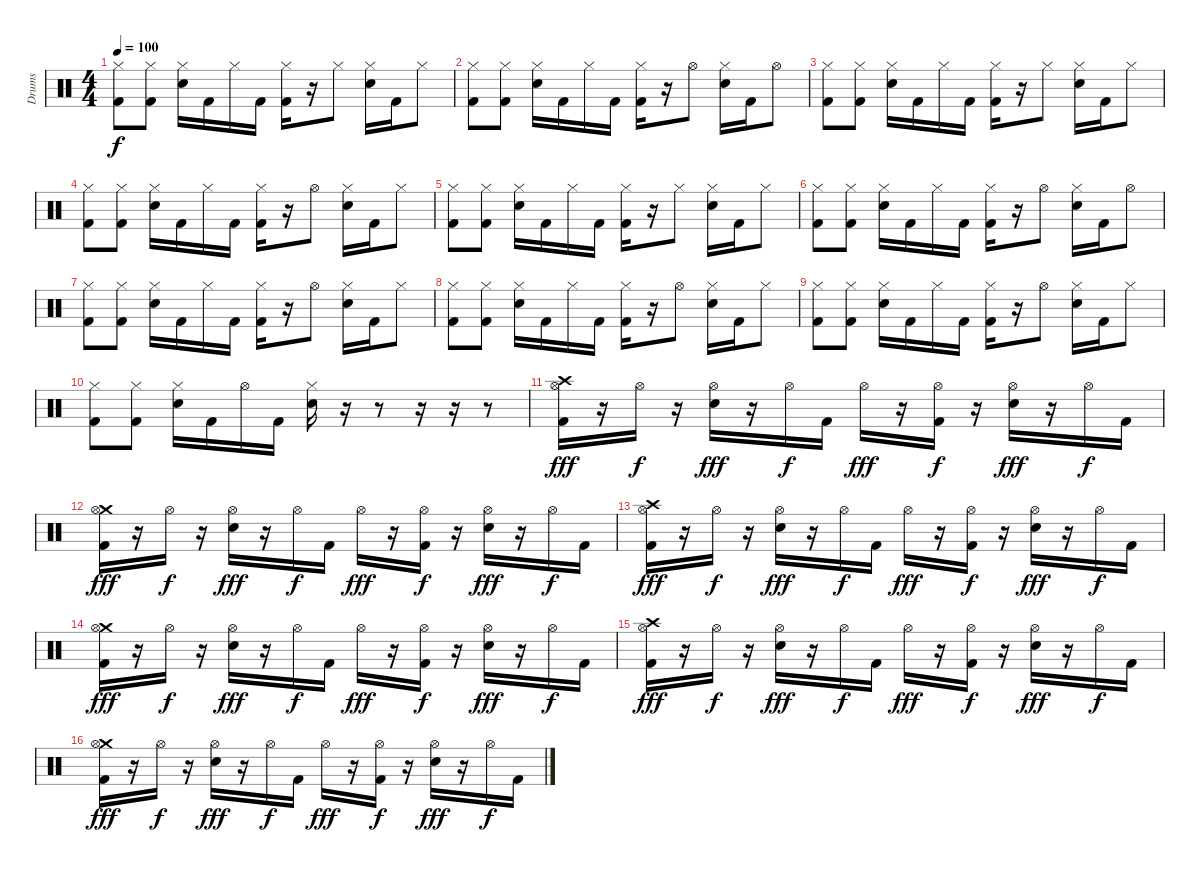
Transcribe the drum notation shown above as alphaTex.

\track ("Drums" "Drums") {instrument percussion}
\staff {score}
\articulation defaults
\ts (4 4)
\tempo 100
\clef neutral
\ks c
("Hi-Hat (closed)" "Kick (hit) 2").8{dy f} ("Hi-Hat (closed)" "Kick (hit) 2").8 ("Hi-Hat (closed)" "Electric Snare (hit)").16 "Kick (hit) 2".16 "Hi-Hat (closed)".16 "Kick (hit) 2".16 ("Hi-Hat (closed)" "Kick (hit) 2").16 r.16 "Hi-Hat (closed)".8 ("Hi-Hat (closed)" "Electric Snare (hit)").16 "Kick (hit) 2".16 "Hi-Hat (closed)".8 |
("Hi-Hat (closed)" "Kick (hit) 2").8 ("Hi-Hat (closed)" "Kick (hit) 2").8 ("Hi-Hat (closed)" "Electric Snare (hit)").16 "Kick (hit) 2".16 "Hi-Hat (closed)".16 "Kick (hit) 2".16 ("Hi-Hat (closed)" "Kick (hit) 2").16 r.16 "Hi-Hat (open)".8 ("Hi-Hat (closed)" "Electric Snare (hit)").16 "Kick (hit) 2".16 "Hi-Hat (open)".8 |
("Hi-Hat (closed)" "Kick (hit) 2").8 ("Hi-Hat (closed)" "Kick (hit) 2").8 ("Hi-Hat (closed)" "Electric Snare (hit)").16 "Kick (hit) 2".16 "Hi-Hat (closed)".16 "Kick (hit) 2".16 ("Hi-Hat (closed)" "Kick (hit) 2").16 r.16 "Hi-Hat (closed)".8 ("Hi-Hat (closed)" "Electric Snare (hit)").16 "Kick (hit) 2".16 "Hi-Hat (closed)".8 |
("Hi-Hat (closed)" "Kick (hit) 2").8 ("Hi-Hat (closed)" "Kick (hit) 2").8 ("Hi-Hat (closed)" "Electric Snare (hit)").16 "Kick (hit) 2".16 "Hi-Hat (closed)".16 "Kick (hit) 2".16 ("Hi-Hat (closed)" "Kick (hit) 2").16 r.16 "Hi-Hat (open)".8 ("Hi-Hat (closed)" "Electric Snare (hit)").16 "Kick (hit) 2".16 "Hi-Hat (closed)".8 |
("Hi-Hat (closed)" "Kick (hit) 2").8 ("Hi-Hat (closed)" "Kick (hit) 2").8 ("Hi-Hat (closed)" "Electric Snare (hit)").16 "Kick (hit) 2".16 "Hi-Hat (closed)".16 "Kick (hit) 2".16 ("Hi-Hat (closed)" "Kick (hit) 2").16 r.16 "Hi-Hat (closed)".8 ("Hi-Hat (closed)" "Electric Snare (hit)").16 "Kick (hit) 2".16 "Hi-Hat (closed)".8 |
("Hi-Hat (closed)" "Kick (hit) 2").8 ("Hi-Hat (closed)" "Kick (hit) 2").8 ("Hi-Hat (closed)" "Electric Snare (hit)").16 "Kick (hit) 2".16 "Hi-Hat (closed)".16 "Kick (hit) 2".16 ("Hi-Hat (closed)" "Kick (hit) 2").16 r.16 "Hi-Hat (open)".8 ("Hi-Hat (closed)" "Electric Snare (hit)").16 "Kick (hit) 2".16 "Hi-Hat (open)".8 |
("Hi-Hat (closed)" "Kick (hit) 2").8 ("Hi-Hat (closed)" "Kick (hit) 2").8 ("Hi-Hat (closed)" "Electric Snare (hit)").16 "Kick (hit) 2".16 "Hi-Hat (closed)".16 "Kick (hit) 2".16 ("Hi-Hat (closed)" "Kick (hit) 2").16 r.16 "Hi-Hat (open)".8 ("Hi-Hat (closed)" "Electric Snare (hit)").16 "Kick (hit) 2".16 "Hi-Hat (closed)".8 |
("Hi-Hat (closed)" "Kick (hit) 2").8 ("Hi-Hat (closed)" "Kick (hit) 2").8 ("Hi-Hat (closed)" "Electric Snare (hit)").16 "Kick (hit) 2".16 "Hi-Hat (closed)".16 "Kick (hit) 2".16 ("Hi-Hat (closed)" "Kick (hit) 2").16 r.16 "Hi-Hat (open)".8 ("Hi-Hat (closed)" "Electric Snare (hit)").16 "Kick (hit) 2".16 "Hi-Hat (closed)".8 |
("Hi-Hat (closed)" "Kick (hit) 2").8 ("Hi-Hat (closed)" "Kick (hit) 2").8 ("Hi-Hat (closed)" "Electric Snare (hit)").16 "Kick (hit) 2".16 "Hi-Hat (closed)".16 "Kick (hit) 2".16 ("Hi-Hat (closed)" "Kick (hit) 2").16 r.16 "Hi-Hat (open)".8 ("Hi-Hat (closed)" "Electric Snare (hit)").16 "Kick (hit) 2".16 "Hi-Hat (closed)".8 |
("Hi-Hat (closed)" "Kick (hit) 2").8 ("Hi-Hat (closed)" "Kick (hit) 2").8 ("Hi-Hat (closed)" "Electric Snare (hit)").16 "Kick (hit) 2".16 "Hi-Hat (open)".16 "Kick (hit) 2".16 ("Hi-Hat (closed)" "Electric Snare (hit)").16 r.16 r.8 r.16 r.16 r.8 |
("Crash high (hit)" "Hi-Hat (open)" "Kick (hit) 2").16{dy fff} r.16 "Hi-Hat (open)".16{dy f} r.16 ("Hi-Hat (open)" "Electric Snare (hit)").16{dy fff} r.16 "Hi-Hat (open)".16{dy f} "Kick (hit) 2".16 "Hi-Hat (open)".16{dy fff} r.16 ("Hi-Hat (open)" "Kick (hit) 2").16{dy f} r.16 ("Hi-Hat (open)" "Electric Snare (hit)").16{dy fff} r.16 "Hi-Hat (open)".16{dy f} "Kick (hit) 2".16 |
("Crash medium (hit)" "Hi-Hat (open)" "Kick (hit) 2").16{dy fff} r.16 "Hi-Hat (open)".16{dy f} r.16 ("Hi-Hat (open)" "Electric Snare (hit)").16{dy fff} r.16 "Hi-Hat (open)".16{dy f} "Kick (hit) 2".16 "Hi-Hat (open)".16{dy fff} r.16 ("Hi-Hat (open)" "Kick (hit) 2").16{dy f} r.16 ("Hi-Hat (open)" "Electric Snare (hit)").16{dy fff} r.16 "Hi-Hat (open)".16{dy f} "Kick (hit) 2".16 |
("Crash high (hit)" "Hi-Hat (open)" "Kick (hit) 2").16{dy fff} r.16 "Hi-Hat (open)".16{dy f} r.16 ("Hi-Hat (open)" "Electric Snare (hit)").16{dy fff} r.16 "Hi-Hat (open)".16{dy f} "Kick (hit) 2".16 "Hi-Hat (open)".16{dy fff} r.16 ("Hi-Hat (open)" "Kick (hit) 2").16{dy f} r.16 ("Hi-Hat (open)" "Electric Snare (hit)").16{dy fff} r.16 "Hi-Hat (open)".16{dy f} "Kick (hit) 2".16 |
("Crash medium (hit)" "Hi-Hat (open)" "Kick (hit) 2").16{dy fff} r.16 "Hi-Hat (open)".16{dy f} r.16 ("Hi-Hat (open)" "Electric Snare (hit)").16{dy fff} r.16 "Hi-Hat (open)".16{dy f} "Kick (hit) 2".16 "Hi-Hat (open)".16{dy fff} r.16 ("Hi-Hat (open)" "Kick (hit) 2").16{dy f} r.16 ("Hi-Hat (open)" "Electric Snare (hit)").16{dy fff} r.16 "Hi-Hat (open)".16{dy f} "Kick (hit) 2".16 |
("Crash high (hit)" "Hi-Hat (open)" "Kick (hit) 2").16{dy fff} r.16 "Hi-Hat (open)".16{dy f} r.16 ("Hi-Hat (open)" "Electric Snare (hit)").16{dy fff} r.16 "Hi-Hat (open)".16{dy f} "Kick (hit) 2".16 "Hi-Hat (open)".16{dy fff} r.16 ("Hi-Hat (open)" "Kick (hit) 2").16{dy f} r.16 ("Hi-Hat (open)" "Electric Snare (hit)").16{dy fff} r.16 "Hi-Hat (open)".16{dy f} "Kick (hit) 2".16 |
("Crash medium (hit)" "Hi-Hat (open)" "Kick (hit) 2").16{dy fff} r.16 "Hi-Hat (open)".16{dy f} r.16 ("Hi-Hat (open)" "Electric Snare (hit)").16{dy fff} r.16 "Hi-Hat (open)".16{dy f} "Kick (hit) 2".16 "Hi-Hat (open)".16{dy fff} r.16 ("Hi-Hat (open)" "Kick (hit) 2").16{dy f} r.16 ("Hi-Hat (open)" "Electric Snare (hit)").16{dy fff} r.16 "Hi-Hat (open)".16{dy f} "Kick (hit) 2".16
